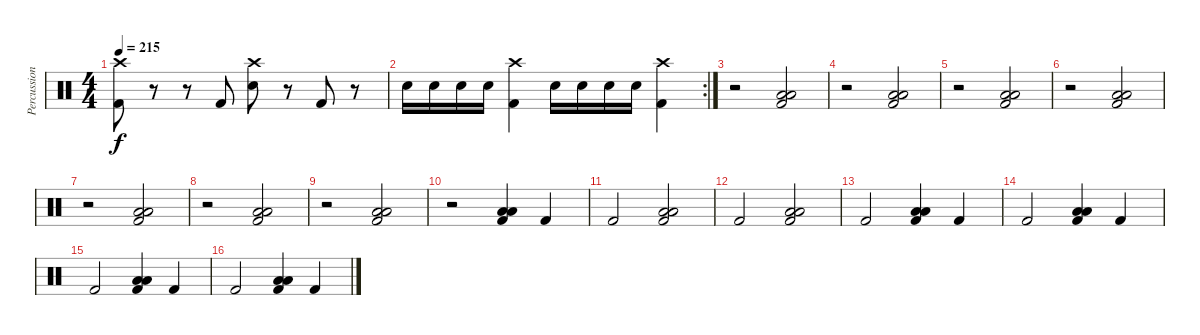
\track ("Percussion" "Percussion") {instrument percussion}
\staff {score}
\articulation defaults
\ts (4 4)
\tempo 215
\clef neutral
\ks c
("Crash high (hit)" "Kick (hit) 2").8{dy f} r.8 r.8 "Kick (hit) 2".8 ("Crash high (hit)" "Snare (hit) 2").8 r.8 "Kick (hit) 2".8 r.8 |
\rc 2 "Snare (hit) 2".16 "Snare (hit) 2".16 "Snare (hit) 2".16 "Snare (hit) 2".16
("Crash high (hit)" "Kick (hit) 2").4 "Snare (hit) 2".16 "Snare (hit) 2".16 "Snare (hit) 2".16 "Snare (hit) 2".16 ("Crash high (hit)" "Kick (hit) 2").4 |
r.2 ("Low Tom (hit)" "Low Floor Tom (hit)" "Kick (hit) 2").2 |
r.2 ("Low Tom (hit)" "Low Floor Tom (hit)" "Kick (hit) 2").2 |
r.2 ("Low Tom (hit)" "Low Floor Tom (hit)" "Kick (hit) 2").2 |
r.2 ("Low Tom (hit)" "Low Floor Tom (hit)" "Kick (hit) 2").2 |
r.2 ("Low Tom (hit)" "Low Floor Tom (hit)" "Kick (hit) 2").2 |
r.2 ("Low Tom (hit)" "Low Floor Tom (hit)" "Kick (hit) 2").2 |
r.2 ("Low Tom (hit)" "Low Floor Tom (hit)" "Kick (hit) 2").2 |
r.2 ("Low Tom (hit)" "Low Floor Tom (hit)" "Kick (hit) 2").4 "Kick (hit) 2".4 |
"Kick (hit) 2".2 ("Low Tom (hit)" "Low Floor Tom (hit)" "Kick (hit) 2").2 |
"Kick (hit) 2".2 ("Low Tom (hit)" "Low Floor Tom (hit)" "Kick (hit) 2").2 |
"Kick (hit) 2".2 ("Low Tom (hit)" "Low Floor Tom (hit)" "Kick (hit) 2").4 "Kick (hit) 2".4 |
"Kick (hit) 2".2 ("Low Tom (hit)" "Low Floor Tom (hit)" "Kick (hit) 2").4 "Kick (hit) 2".4 |
"Kick (hit) 2".2 ("Low Tom (hit)" "Low Floor Tom (hit)" "Kick (hit) 2").4 "Kick (hit) 2".4 |
"Kick (hit) 2".2 ("Low Tom (hit)" "Low Floor Tom (hit)" "Kick (hit) 2").4 "Kick (hit) 2".4
